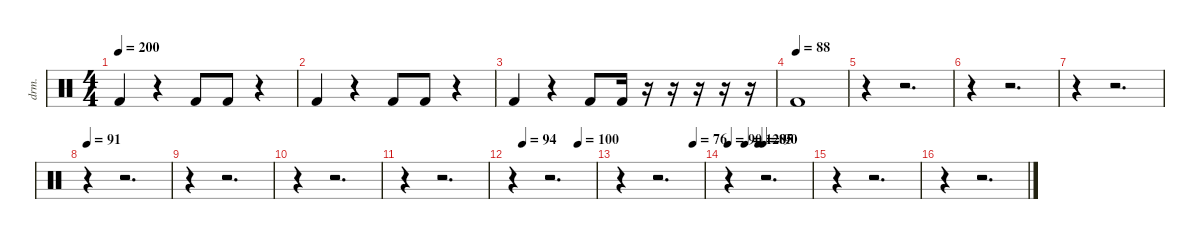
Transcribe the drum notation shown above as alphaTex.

\defaultSystemsLayout 4
\hideDynamics
\bracketExtendMode nobrackets
\track ("Percussion" "drm.") {instrument percussion}
\staff {score}
\articulation defaults
\ts (4 4)
\tempo 200
\clef neutral
\ks c "Kick (hit) 2".4{dy f}
r.4 "Kick (hit) 2".8 "Kick (hit) 2".8 r.4 |
"Kick (hit) 2".4 r.4 "Kick (hit) 2".8 "Kick (hit) 2".8 r.4 |
"Kick (hit) 2".4 r.4 "Kick (hit) 2".8 "Kick (hit) 2".16 r.16 r.16 r.16 r.16 r.16 |
\tempo (88)
"Kick (hit) 2".1 |
r.4 r.2{d} |
r.4 r.2{d} |
r.4 r.2{d} |
\tempo 91
r.4 r.2{d} |
r.4 r.2{d} |
r.4 r.2{d} |
r.4 r.2{d} |
\tempo (94 0.125)
\tempo (100 0.791667)
r.4 r.2{d} |
\tempo (76 0.875)
r.4 r.2{d} |
\tempo 90
\tempo (120 0.205479)
\tempo (85 0.369863)
\tempo (90 0.424658)
r.4 r.2{d} |
r.4 r.2{d} |
r.4 r.2{d}
